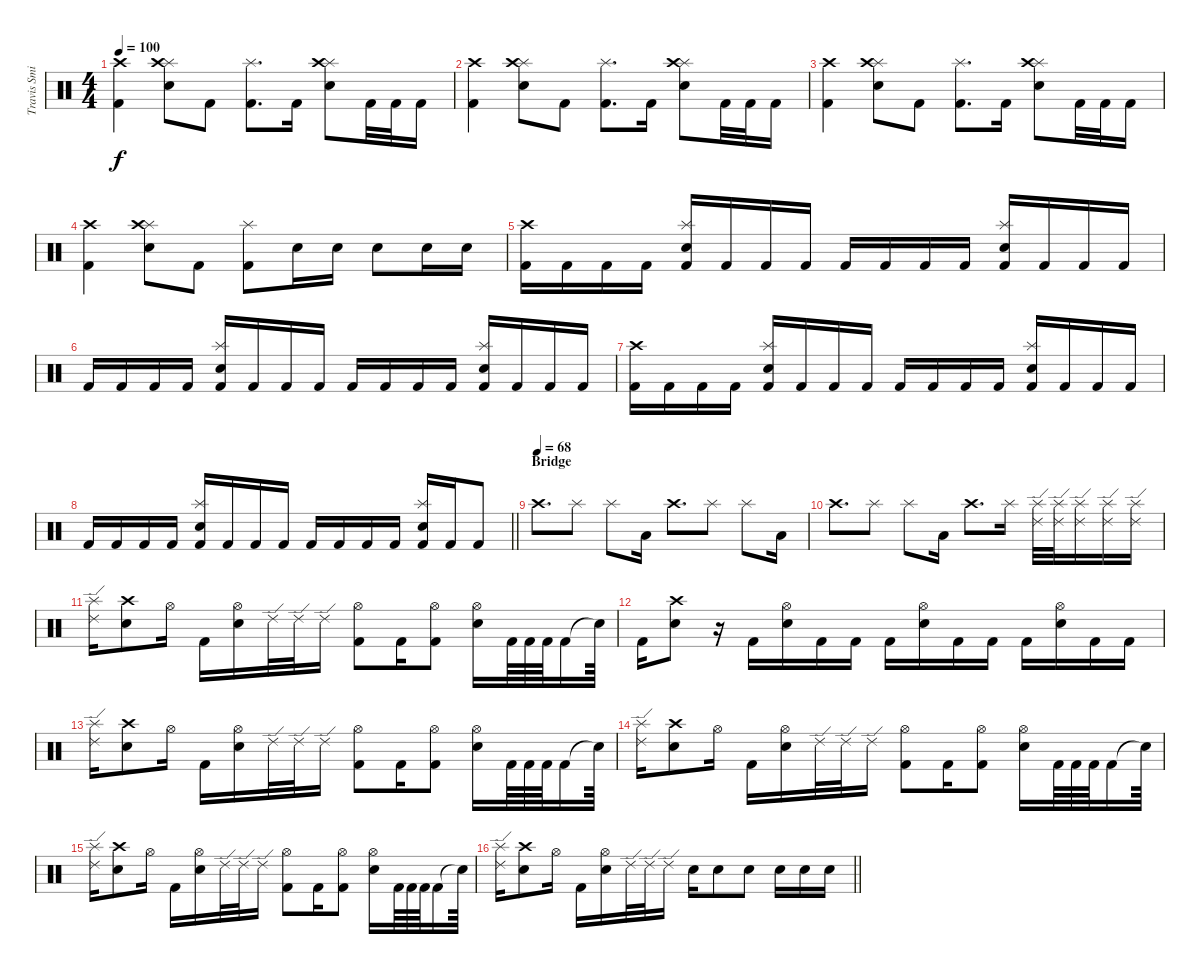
\track ("Travis Smith" "Travis Smi") {instrument percussion}
\staff {score}
\articulation defaults
\ts (4 4)
\tempo 100
\clef neutral
\ks c
("Crash high (hit)" "Kick (hit) 2").4{dy f} ("Splash (hit)" "Crash high (hit)" "Snare (hit) 2").8 "Kick (hit) 2".8 ("Splash (hit)" "Kick (hit) 2").8{d} "Kick (hit) 2".16 ("Splash (hit)" "Crash high (hit)" "Snare (hit) 2").8 "Kick (hit) 2".32 "Kick (hit) 2".32 "Kick (hit) 2".16 |
("Crash high (hit)" "Kick (hit) 2").4 ("Splash (hit)" "Crash high (hit)" "Snare (hit) 2").8 "Kick (hit) 2".8 ("Splash (hit)" "Kick (hit) 2").8{d} "Kick (hit) 2".16 ("Splash (hit)" "Crash high (hit)" "Snare (hit) 2").8 "Kick (hit) 2".32 "Kick (hit) 2".32 "Kick (hit) 2".16 |
("Crash high (hit)" "Kick (hit) 2").4 ("Splash (hit)" "Crash high (hit)" "Snare (hit) 2").8 "Kick (hit) 2".8 ("Splash (hit)" "Kick (hit) 2").8{d} "Kick (hit) 2".16 ("Splash (hit)" "Crash high (hit)" "Snare (hit) 2").8 "Kick (hit) 2".32 "Kick (hit) 2".32 "Kick (hit) 2".16 |
("Crash high (hit)" "Kick (hit) 2").4 ("Splash (hit)" "Crash high (hit)" "Snare (hit) 2").8 "Kick (hit) 2".8 ("Splash (hit)" "Kick (hit) 2").8 "Snare (hit) 2".16 "Snare (hit) 2".16 "Snare (hit) 2".8 "Snare (hit) 2".16 "Snare (hit) 2".16 |
("Crash high (hit)" "Kick (hit) 2").16 "Kick (hit) 2".16 "Kick (hit) 2".16 "Kick (hit) 2".16 ("Splash (hit)" "Snare (hit) 2" "Kick (hit) 2").16 "Kick (hit) 2".16 "Kick (hit) 2".16 "Kick (hit) 2".16 "Kick (hit) 2".16 "Kick (hit) 2".16 "Kick (hit) 2".16 "Kick (hit) 2".16 ("Splash (hit)" "Snare (hit) 2" "Kick (hit) 2").16 "Kick (hit) 2".16 "Kick (hit) 2".16 "Kick (hit) 2".16 |
"Kick (hit) 2".16 "Kick (hit) 2".16 "Kick (hit) 2".16 "Kick (hit) 2".16 ("Splash (hit)" "Snare (hit) 2" "Kick (hit) 2").16 "Kick (hit) 2".16 "Kick (hit) 2".16 "Kick (hit) 2".16 "Kick (hit) 2".16 "Kick (hit) 2".16 "Kick (hit) 2".16 "Kick (hit) 2".16 ("Splash (hit)" "Snare (hit) 2" "Kick (hit) 2").16 "Kick (hit) 2".16 "Kick (hit) 2".16 "Kick (hit) 2".16 |
("Crash high (hit)" "Kick (hit) 2").16 "Kick (hit) 2".16 "Kick (hit) 2".16 "Kick (hit) 2".16 ("Splash (hit)" "Snare (hit) 2" "Kick (hit) 2").16 "Kick (hit) 2".16 "Kick (hit) 2".16 "Kick (hit) 2".16 "Kick (hit) 2".16 "Kick (hit) 2".16 "Kick (hit) 2".16 "Kick (hit) 2".16 ("Splash (hit)" "Snare (hit) 2" "Kick (hit) 2").16 "Kick (hit) 2".16 "Kick (hit) 2".16 "Kick (hit) 2".16 |
\barLineRight lightlight "Kick (hit) 2".16 "Kick (hit) 2".16 "Kick (hit) 2".16 "Kick (hit) 2".16
("Splash (hit)" "Snare (hit) 2" "Kick (hit) 2").16 "Kick (hit) 2".16 "Kick (hit) 2".16 "Kick (hit) 2".16 "Kick (hit) 2".16 "Kick (hit) 2".16 "Kick (hit) 2".16 "Kick (hit) 2".16 ("Splash (hit)" "Snare (hit) 2" "Kick (hit) 2").16 "Kick (hit) 2".16 "Kick (hit) 2".8 |
\section ("" "Bridge")
\tempo (68)
"Crash high (hit)".8{d} "Splash (hit)".8 "Splash (hit)".8 "Low Tom (hit)".16 "Crash high (hit)".8{d} "Splash (hit)".8 "Splash (hit)".8 "Low Tom (hit)".16 |
"Crash high (hit)".8{d} "Splash (hit)".8 "Splash (hit)".8 "Low Tom (hit)".16 "Crash high (hit)".8{d} "Splash (hit)".16 ("Ride (edge) 2" "Splash (hit)").32 ("Ride (edge) 2" "Splash (hit)").32 ("Ride (edge) 2" "Splash (hit)").16 ("Ride (edge) 2" "Splash (hit)").16 ("Ride (edge) 2" "Splash (hit)").16 |
("Ride (edge) 2" "Splash (hit)").16 ("Crash high (hit)" "Snare (hit) 2").8 "Hi-Hat (open)".16 "Kick (hit) 2".16 ("Hi-Hat (open)" "Snare (hit) 2").16 "Ride (edge) 2".32 "Ride (edge) 2".32 "Ride (edge) 2".16 ("Hi-Hat (open)" "Kick (hit) 2").8 "Kick (hit) 2".16 ("Hi-Hat (open)" "Kick (hit) 2").8 ("Hi-Hat (open)" "Snare (hit) 2").16 "Kick (hit) 2".64 "Kick (hit) 2".64 "Kick (hit) 2".64 "Kick (hit) 2".16 "Snare (hit)"{t}.64 |
"Kick (hit) 2".16 ("Crash high (hit)" "Snare (hit) 2").8 r.16 "Kick (hit) 2".16 ("Hi-Hat (open)" "Snare (hit) 2").16 "Kick (hit) 2".16 "Kick (hit) 2".16 "Kick (hit) 2".16 ("Hi-Hat (open)" "Snare (hit) 2").16 "Kick (hit) 2".16 "Kick (hit) 2".16 "Kick (hit) 2".16 ("Hi-Hat (open)" "Snare (hit) 2").16 "Kick (hit) 2".16 "Kick (hit) 2".16 |
("Ride (edge) 2" "Splash (hit)").16 ("Crash high (hit)" "Snare (hit) 2").8 "Hi-Hat (open)".16 "Kick (hit) 2".16 ("Hi-Hat (open)" "Snare (hit) 2").16 "Ride (edge) 2".32 "Ride (edge) 2".32 "Ride (edge) 2".16 ("Hi-Hat (open)" "Kick (hit) 2").8 "Kick (hit) 2".16 ("Hi-Hat (open)" "Kick (hit) 2").8 ("Hi-Hat (open)" "Snare (hit) 2").16 "Kick (hit) 2".64 "Kick (hit) 2".64 "Kick (hit) 2".64 "Kick (hit) 2".16 "Snare (hit)"{t}.64 |
("Ride (edge) 2" "Splash (hit)").16 ("Crash high (hit)" "Snare (hit) 2").8 "Hi-Hat (open)".16 "Kick (hit) 2".16 ("Hi-Hat (open)" "Snare (hit) 2").16 "Ride (edge) 2".32 "Ride (edge) 2".32 "Ride (edge) 2".16 ("Hi-Hat (open)" "Kick (hit) 2").8 "Kick (hit) 2".16 ("Hi-Hat (open)" "Kick (hit) 2").8 ("Hi-Hat (open)" "Snare (hit) 2").16 "Kick (hit) 2".64 "Kick (hit) 2".64 "Kick (hit) 2".64 "Kick (hit) 2".16 "Snare (hit)"{t}.64 |
("Ride (edge) 2" "Splash (hit)").16 ("Crash high (hit)" "Snare (hit) 2").8 "Hi-Hat (open)".16 "Kick (hit) 2".16 ("Hi-Hat (open)" "Snare (hit) 2").16 "Ride (edge) 2".32 "Ride (edge) 2".32 "Ride (edge) 2".16 ("Hi-Hat (open)" "Kick (hit) 2").8 "Kick (hit) 2".16 ("Hi-Hat (open)" "Kick (hit) 2").8 ("Hi-Hat (open)" "Snare (hit) 2").16 "Kick (hit) 2".64 "Kick (hit) 2".64 "Kick (hit) 2".64 "Kick (hit) 2".16 "Snare (hit)"{t}.64 |
\barLineRight lightlight
("Ride (edge) 2" "Splash (hit)").16 ("Crash high (hit)" "Snare (hit) 2").8 "Hi-Hat (open)".16 "Kick (hit) 2".16 ("Hi-Hat (open)" "Snare (hit) 2").16 "Ride (edge) 2".32 "Ride (edge) 2".32 "Ride (edge) 2".16 "Snare (hit) 2".16 "Snare (hit) 2".8 "Snare (hit) 2".8 "Snare (hit) 2".16 "Snare (hit) 2".16 "Snare (hit) 2".16
